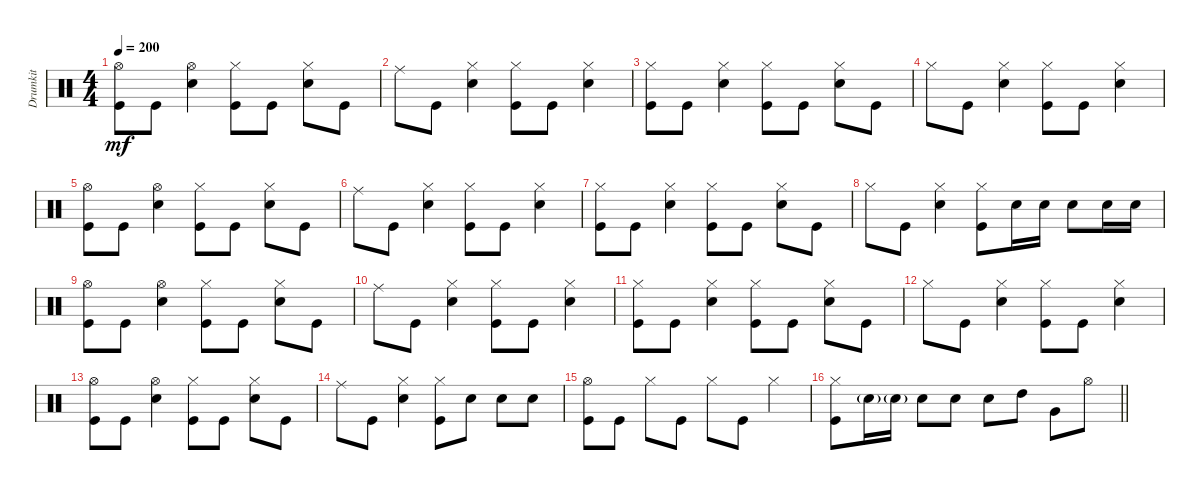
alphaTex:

\track ("Drumkit" "Drumkit") {instrument percussion}
\staff {score}
\articulation defaults
\ts (4 4)
\tempo 200
\clef neutral
\ks c
("Kick (hit)" "Hi-Hat (open)").8{dy mf} "Kick (hit)".8 ("Snare (hit) 2" "Hi-Hat (open)").4 ("Hi-Hat (closed)" "Kick (hit)").8 "Kick (hit)".8 ("Snare (hit) 2" "Hi-Hat (closed)").8 "Kick (hit)".8 |
"Ride (middle)".8 "Kick (hit)".8 ("Snare (hit) 2" "Hi-Hat (closed)").4 ("Kick (hit)" "Hi-Hat (closed)").8 "Kick (hit)".8 ("Snare (hit) 2" "Hi-Hat (closed)").4 |
("Kick (hit)" "Hi-Hat (closed)").8 "Kick (hit)".8 ("Snare (hit) 2" "Hi-Hat (closed)").4 ("Kick (hit)" "Hi-Hat (closed)").8 "Kick (hit)".8 ("Snare (hit) 2" "Hi-Hat (closed)").8 "Kick (hit)".8 |
"Hi-Hat (closed)".8 "Kick (hit)".8 ("Snare (hit) 2" "Hi-Hat (closed)").4 ("Kick (hit)" "Hi-Hat (closed)").8 "Kick (hit)".8 ("Snare (hit) 2" "Hi-Hat (closed)").4 |
("Kick (hit)" "Hi-Hat (open)").8 "Kick (hit)".8 ("Snare (hit) 2" "Hi-Hat (open)").4 ("Hi-Hat (closed)" "Kick (hit)").8 "Kick (hit)".8 ("Snare (hit) 2" "Hi-Hat (closed)").8 "Kick (hit)".8 |
"Ride (middle)".8 "Kick (hit)".8 ("Snare (hit) 2" "Hi-Hat (closed)").4 ("Kick (hit)" "Hi-Hat (closed)").8 "Kick (hit)".8 ("Snare (hit) 2" "Hi-Hat (closed)").4 |
("Kick (hit)" "Hi-Hat (closed)").8 "Kick (hit)".8 ("Snare (hit) 2" "Hi-Hat (closed)").4 ("Kick (hit)" "Hi-Hat (closed)").8 "Kick (hit)".8 ("Snare (hit) 2" "Hi-Hat (closed)").8 "Kick (hit)".8 |
"Hi-Hat (closed)".8 "Kick (hit)".8 ("Snare (hit) 2" "Hi-Hat (closed)").4 ("Kick (hit)" "Hi-Hat (closed)").8 "Snare (hit) 2".16 "Snare (hit) 2".16 "Snare (hit) 2".8 "Snare (hit) 2".16 "Snare (hit) 2".16 |
("Kick (hit)" "Hi-Hat (open)").8 "Kick (hit)".8 ("Snare (hit) 2" "Hi-Hat (open)").4 ("Hi-Hat (closed)" "Kick (hit)").8 "Kick (hit)".8 ("Snare (hit) 2" "Hi-Hat (closed)").8 "Kick (hit)".8 |
"Ride (middle)".8 "Kick (hit)".8 ("Snare (hit) 2" "Hi-Hat (closed)").4 ("Kick (hit)" "Hi-Hat (closed)").8 "Kick (hit)".8 ("Snare (hit) 2" "Hi-Hat (closed)").4 |
("Kick (hit)" "Hi-Hat (closed)").8 "Kick (hit)".8 ("Snare (hit) 2" "Hi-Hat (closed)").4 ("Kick (hit)" "Hi-Hat (closed)").8 "Kick (hit)".8 ("Snare (hit) 2" "Hi-Hat (closed)").8 "Kick (hit)".8 |
"Hi-Hat (closed)".8 "Kick (hit)".8 ("Snare (hit) 2" "Hi-Hat (closed)").4 ("Kick (hit)" "Hi-Hat (closed)").8 "Kick (hit)".8 ("Snare (hit) 2" "Hi-Hat (closed)").4 |
("Kick (hit)" "Hi-Hat (open)").8 "Kick (hit)".8 ("Snare (hit) 2" "Hi-Hat (open)").4 ("Hi-Hat (closed)" "Kick (hit)").8 "Kick (hit)".8 ("Snare (hit) 2" "Hi-Hat (closed)").8 "Kick (hit)".8 |
"Ride (middle)".8 "Kick (hit)".8 ("Snare (hit) 2" "Hi-Hat (closed)").4 ("Kick (hit)" "Hi-Hat (closed)").8 "Snare (hit) 2".8 "Snare (hit) 2".8 "Snare (hit) 2".8 |
("Kick (hit)" "Hi-Hat (open)").8 "Kick (hit)".8 "Hi-Hat (closed)".8 "Kick (hit)".8 "Hi-Hat (closed)".8 "Kick (hit)".8 "Hi-Hat (closed)".4 |
\barLineRight lightlight
("Kick (hit)" "Hi-Hat (closed)").8 "Snare (hit) 2"{g}.16 "Snare (hit) 2"{g}.16 "Snare (hit) 2".8 "Snare (hit) 2".8 "Snare (hit) 2".8 "High Tom (hit)".8 "Very Low Tom (hit)".8 "Hi-Hat (open)".8
